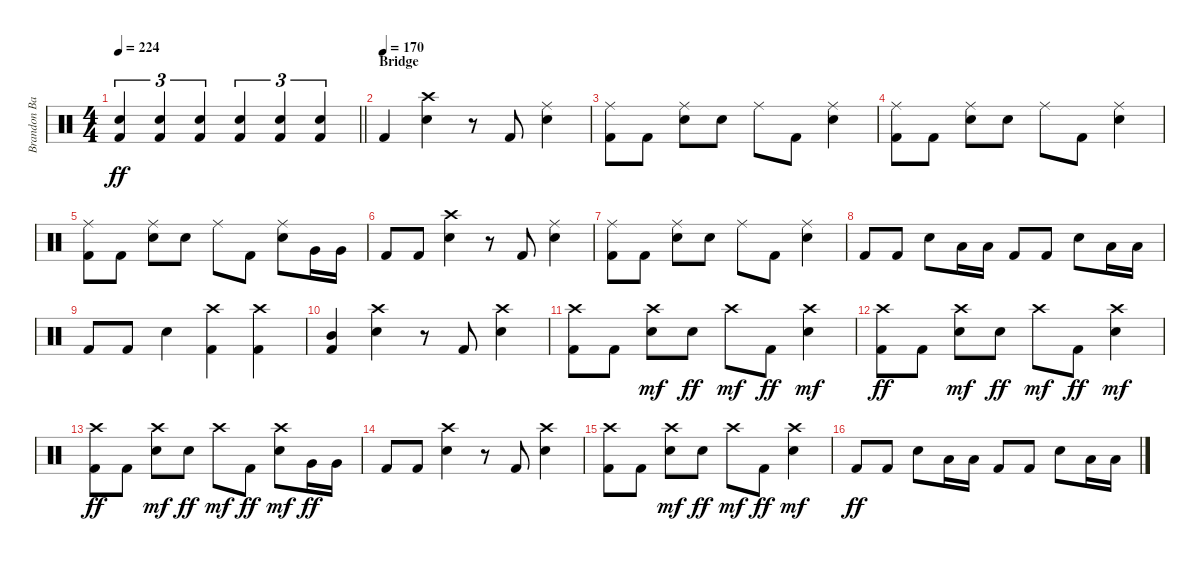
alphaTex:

\track ("Brandon Barnes" "Brandon Ba") {instrument percussion}
\staff {score}
\articulation defaults
\ts (4 4)
\tempo 224
\clef neutral
\barLineRight lightlight
\ks c
("Kick (hit) 2" "Snare (hit) 2").4{tu (3 2) dy ff} ("Kick (hit) 2" "Snare (hit) 2").4{tu (3 2)} ("Kick (hit) 2" "Snare (hit) 2").4{tu (3 2)} ("Kick (hit) 2" "Snare (hit) 2").4{tu (3 2)} ("Kick (hit) 2" "Snare (hit) 2").4{tu (3 2)} ("Kick (hit) 2" "Snare (hit) 2").4{tu (3 2)} |
\section ("" "Bridge")
\tempo (170)
"Kick (hit) 2".4 ("Snare (hit) 2" "Crash high (hit)").4 r.8 "Kick (hit) 2".8 ("Snare (hit) 2" "Ride (middle)").4 |
("Ride (middle)" "Kick (hit) 2").8 "Kick (hit) 2".8 ("Snare (hit) 2" "Ride (middle)").8 "Snare (hit) 2".8 "Ride (middle)".8 "Kick (hit) 2".8 ("Snare (hit) 2" "Ride (middle)").4 |
("Ride (middle)" "Kick (hit) 2").8 "Kick (hit) 2".8 ("Snare (hit) 2" "Ride (middle)").8 "Snare (hit) 2".8 "Ride (middle)".8 "Kick (hit) 2".8 ("Snare (hit) 2" "Ride (middle)").4 |
("Ride (middle)" "Kick (hit) 2").8 "Kick (hit) 2".8 ("Snare (hit) 2" "Ride (middle)").8 "Snare (hit) 2".8 "Ride (middle)".8 "Kick (hit) 2".8 ("Snare (hit) 2" "Ride (middle)").8 "Very Low Tom (hit)".16 "Very Low Tom (hit)".16 |
"Kick (hit) 2".8 "Kick (hit) 2".8 ("Snare (hit) 2" "Crash high (hit)").4 r.8 "Kick (hit) 2".8 ("Snare (hit) 2" "Ride (middle)").4 |
("Ride (middle)" "Kick (hit) 2").8 "Kick (hit) 2".8 ("Snare (hit) 2" "Ride (middle)").8 "Snare (hit) 2".8 "Ride (middle)".8 "Kick (hit) 2".8 ("Snare (hit) 2" "Ride (middle)").4 |
"Kick (hit) 2".8 "Kick (hit) 2".8 "Snare (hit) 2".8 "Low Tom (hit)".16 "Low Tom (hit)".16 "Kick (hit) 2".8 "Kick (hit) 2".8 "Snare (hit) 2".8 "Low Tom (hit)".16 "Low Tom (hit)".16 |
"Kick (hit) 2".8 "Kick (hit) 2".8 "Snare (hit) 2".4 ("Kick (hit) 2" "Crash high (hit)").4 ("Kick (hit) 2" "Crash high (hit)").4 |
("Kick (hit) 2" "Mid Tom (hit)").4 ("Snare (hit) 2" "Crash high (hit)").4 r.8 "Kick (hit) 2".8 ("Snare (hit) 2" "Crash high (hit)").4 |
("Crash high (hit)" "Kick (hit) 2").8 "Kick (hit) 2".8 ("Snare (hit) 2" "Crash high (hit)").8{dy mf} "Snare (hit) 2".8{dy ff} "Crash high (hit)".8{dy mf} "Kick (hit) 2".8{dy ff} ("Snare (hit) 2" "Crash high (hit)").4{dy mf} |
("Crash high (hit)" "Kick (hit) 2").8{dy ff} "Kick (hit) 2".8 ("Snare (hit) 2" "Crash high (hit)").8{dy mf} "Snare (hit) 2".8{dy ff} "Crash high (hit)".8{dy mf} "Kick (hit) 2".8{dy ff} ("Snare (hit) 2" "Crash high (hit)").4{dy mf} |
("Crash high (hit)" "Kick (hit) 2").8{dy ff} "Kick (hit) 2".8 ("Snare (hit) 2" "Crash high (hit)").8{dy mf} "Snare (hit) 2".8{dy ff} "Crash high (hit)".8{dy mf} "Kick (hit) 2".8{dy ff} ("Snare (hit) 2" "Crash high (hit)").8{dy mf} "Very Low Tom (hit)".16{dy ff} "Very Low Tom (hit)".16 |
"Kick (hit) 2".8 "Kick (hit) 2".8 ("Snare (hit) 2" "Crash high (hit)").4 r.8 "Kick (hit) 2".8 ("Snare (hit) 2" "Crash high (hit)").4 |
("Crash high (hit)" "Kick (hit) 2").8 "Kick (hit) 2".8 ("Snare (hit) 2" "Crash high (hit)").8{dy mf} "Snare (hit) 2".8{dy ff} "Crash high (hit)".8{dy mf} "Kick (hit) 2".8{dy ff} ("Snare (hit) 2" "Crash high (hit)").4{dy mf} |
"Kick (hit) 2".8{dy ff} "Kick (hit) 2".8 "Snare (hit) 2".8 "Low Tom (hit)".16 "Low Tom (hit)".16 "Kick (hit) 2".8 "Kick (hit) 2".8 "Snare (hit) 2".8 "Low Tom (hit)".16 "Low Tom (hit)".16
